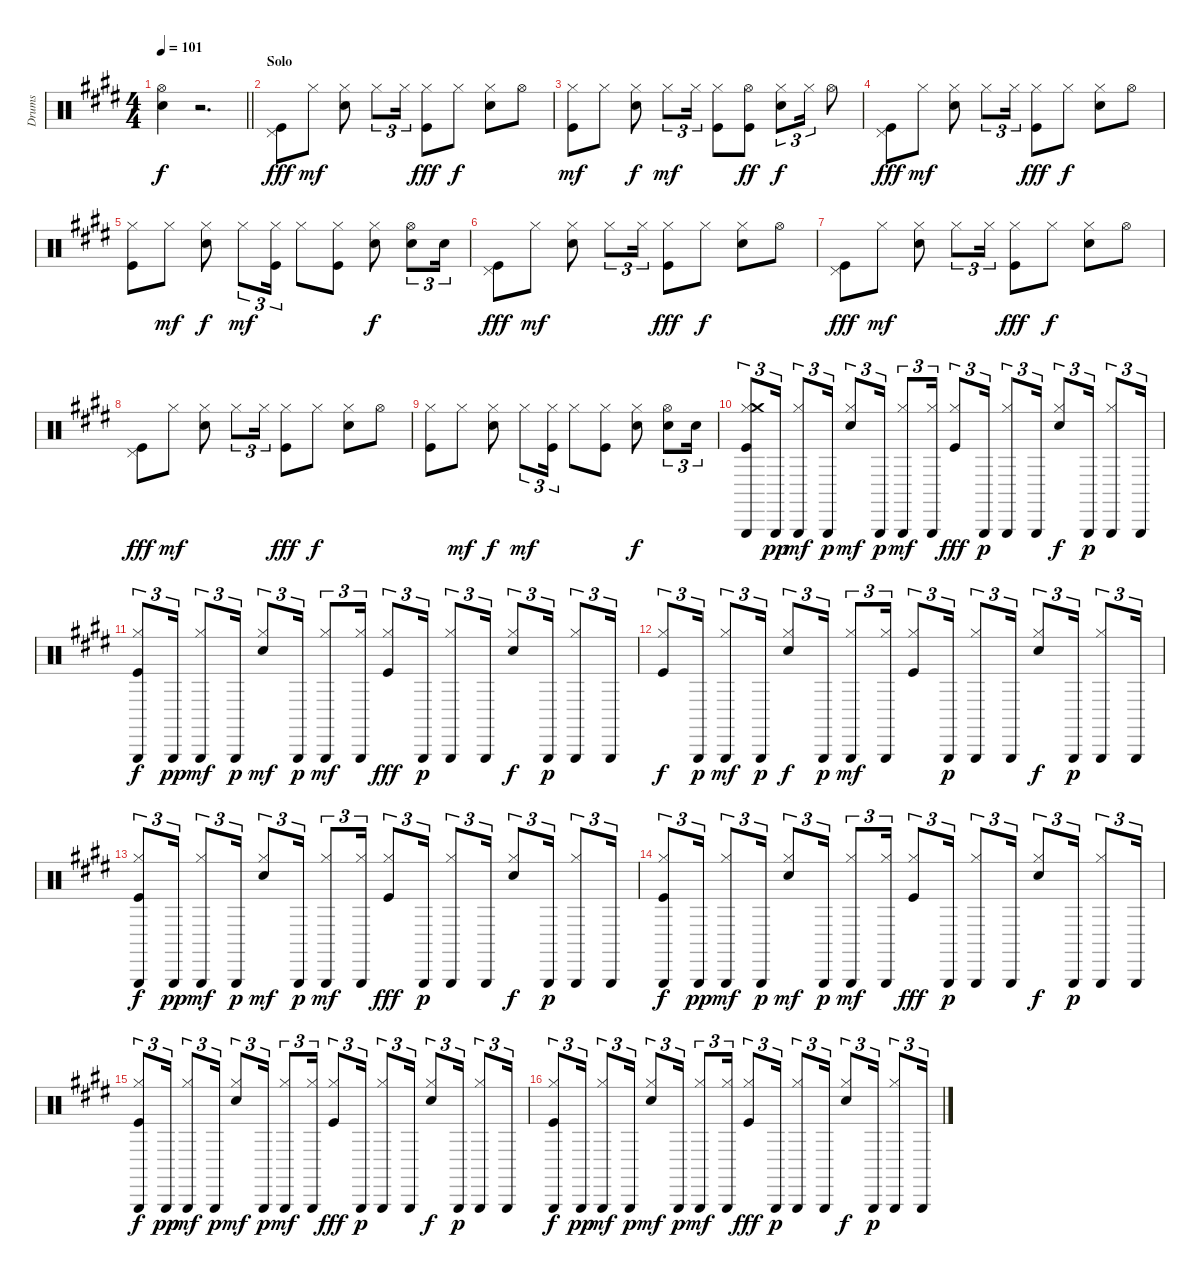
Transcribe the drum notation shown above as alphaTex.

\track ("Drums" "Drums") {instrument percussion}
\staff {score}
\articulation defaults
\ts (4 4)
\tempo 101
\clef neutral
\barLineRight lightlight
\ks e
("Electric Snare (hit)" "Hi-Hat (open)").4{dy f} r.2{d} |
\section ("" "Solo")
("Kick (hit)" "Pedal Hi-Hat (hit)").8{dy fff} "Hi-Hat (closed)".8{dy mf} ("Electric Snare (hit)" "Hi-Hat (closed)").8 "Hi-Hat (closed)".8{tu (3 2)} "Hi-Hat (closed)".16{tu (3 2)} ("Kick (hit)" "Hi-Hat (closed)").8{dy fff} "Hi-Hat (closed)".8{dy f} ("Electric Snare (hit)" "Hi-Hat (closed)").8 "Hi-Hat (open)".8 |
("Kick (hit)" "Hi-Hat (closed)").8{dy mf} "Hi-Hat (closed)".8 ("Electric Snare (hit)" "Hi-Hat (closed)").8{dy f} "Hi-Hat (closed)".8{tu (3 2) dy mf} "Hi-Hat (closed)".16{tu (3 2)} ("Kick (hit)" "Hi-Hat (closed)").8 ("Hi-Hat (open)" "Kick (hit)").8{dy ff} ("Electric Snare (hit)" "Hi-Hat (closed)").8{tu (3 2) dy f} "Hi-Hat (closed)".16{tu (3 2)} "Hi-Hat (open)".8 |
("Kick (hit)" "Pedal Hi-Hat (hit)").8{dy fff} "Hi-Hat (closed)".8{dy mf} ("Electric Snare (hit)" "Hi-Hat (closed)").8 "Hi-Hat (closed)".8{tu (3 2)} "Hi-Hat (closed)".16{tu (3 2)} ("Kick (hit)" "Hi-Hat (closed)").8{dy fff} "Hi-Hat (closed)".8{dy f} ("Electric Snare (hit)" "Hi-Hat (closed)").8 "Hi-Hat (open)".8 |
("Hi-Hat (closed)" "Kick (hit)").8 "Hi-Hat (closed)".8{dy mf} ("Electric Snare (hit)" "Hi-Hat (closed)").8{dy f} "Hi-Hat (closed)".8{tu (3 2) dy mf} ("Kick (hit)" "Hi-Hat (closed)").16{tu (3 2)} "Hi-Hat (closed)".8 ("Kick (hit)" "Hi-Hat (closed)").8 ("Electric Snare (hit)" "Hi-Hat (closed)").8{dy f} ("Electric Snare (hit)" "Hi-Hat (open)").8{tu (3 2)} "Electric Snare (hit)".16{tu (3 2)} |
("Kick (hit)" "Pedal Hi-Hat (hit)").8{dy fff} "Hi-Hat (closed)".8{dy mf} ("Electric Snare (hit)" "Hi-Hat (closed)").8 "Hi-Hat (closed)".8{tu (3 2)} "Hi-Hat (closed)".16{tu (3 2)} ("Kick (hit)" "Hi-Hat (closed)").8{dy fff} "Hi-Hat (closed)".8{dy f} ("Electric Snare (hit)" "Hi-Hat (closed)").8 "Hi-Hat (open)".8 |
("Kick (hit)" "Pedal Hi-Hat (hit)").8{dy fff} "Hi-Hat (closed)".8{dy mf} ("Electric Snare (hit)" "Hi-Hat (closed)").8 "Hi-Hat (closed)".8{tu (3 2)} "Hi-Hat (closed)".16{tu (3 2)} ("Kick (hit)" "Hi-Hat (closed)").8{dy fff} "Hi-Hat (closed)".8{dy f} ("Electric Snare (hit)" "Hi-Hat (closed)").8 "Hi-Hat (open)".8 |
("Kick (hit)" "Pedal Hi-Hat (hit)").8{dy fff} "Hi-Hat (closed)".8{dy mf} ("Electric Snare (hit)" "Hi-Hat (closed)").8 "Hi-Hat (closed)".8{tu (3 2)} "Hi-Hat (closed)".16{tu (3 2)} ("Kick (hit)" "Hi-Hat (closed)").8{dy fff} "Hi-Hat (closed)".8{dy f} ("Electric Snare (hit)" "Hi-Hat (closed)").8 "Hi-Hat (open)".8 |
("Hi-Hat (closed)" "Kick (hit)").8 "Hi-Hat (closed)".8{dy mf} ("Electric Snare (hit)" "Hi-Hat (closed)").8{dy f} "Hi-Hat (closed)".8{tu (3 2) dy mf} ("Kick (hit)" "Hi-Hat (closed)").16{tu (3 2)} "Hi-Hat (closed)".8 ("Kick (hit)" "Hi-Hat (closed)").8 ("Electric Snare (hit)" "Hi-Hat (closed)").8{dy f} ("Electric Snare (hit)" "Hi-Hat (open)").8{tu (3 2)} "Electric Snare (hit)".16{tu (3 2)} |
("Triangle (hit)" "Kick (hit)" "Hi-Hat (closed)" "Crash medium (hit)").8{tu (3 2)} "Triangle (hit)".16{tu (3 2) dy pp} ("Triangle (hit)" "Hi-Hat (closed)").8{tu (3 2) dy mf} "Triangle (hit)".16{tu (3 2) dy p} ("Electric Snare (hit)" "Hi-Hat (closed)").8{tu (3 2) dy mf} "Triangle (hit)".16{tu (3 2) dy p} ("Triangle (hit)" "Hi-Hat (closed)").8{tu (3 2) dy mf} ("Triangle (hit)" "Hi-Hat (closed)").16{tu (3 2)} ("Kick (hit)" "Hi-Hat (closed)").8{tu (3 2) dy fff} "Triangle (hit)".16{tu (3 2) dy p} ("Triangle (hit)" "Hi-Hat (closed)").8{tu (3 2)} "Triangle (hit)".16{tu (3 2)} ("Electric Snare (hit)" "Hi-Hat (closed)").8{tu (3 2) dy f} "Triangle (hit)".16{tu (3 2) dy p} ("Triangle (hit)" "Hi-Hat (closed)").8{tu (3 2)} "Triangle (hit)".16{tu (3 2)} |
("Triangle (hit)" "Kick (hit)" "Hi-Hat (closed)").8{tu (3 2) dy f} "Triangle (hit)".16{tu (3 2) dy pp} ("Triangle (hit)" "Hi-Hat (closed)").8{tu (3 2) dy mf} "Triangle (hit)".16{tu (3 2) dy p} ("Electric Snare (hit)" "Hi-Hat (closed)").8{tu (3 2) dy mf} "Triangle (hit)".16{tu (3 2) dy p} ("Triangle (hit)" "Hi-Hat (closed)").8{tu (3 2) dy mf} ("Triangle (hit)" "Hi-Hat (closed)").16{tu (3 2)} ("Kick (hit)" "Hi-Hat (closed)").8{tu (3 2) dy fff} "Triangle (hit)".16{tu (3 2) dy p} ("Triangle (hit)" "Hi-Hat (closed)").8{tu (3 2)} "Triangle (hit)".16{tu (3 2)} ("Electric Snare (hit)" "Hi-Hat (closed)").8{tu (3 2) dy f} "Triangle (hit)".16{tu (3 2) dy p} ("Triangle (hit)" "Hi-Hat (closed)").8{tu (3 2)} "Triangle (hit)".16{tu (3 2)} |
("Kick (hit)" "Hi-Hat (closed)").8{tu (3 2) dy f} "Triangle (hit)".16{tu (3 2) dy p} ("Triangle (hit)" "Hi-Hat (closed)").8{tu (3 2) dy mf} "Triangle (hit)".16{tu (3 2) dy p} ("Electric Snare (hit)" "Hi-Hat (closed)").8{tu (3 2) dy f} "Triangle (hit)".16{tu (3 2) dy p} ("Triangle (hit)" "Hi-Hat (closed)").8{tu (3 2) dy mf} ("Triangle (hit)" "Hi-Hat (closed)").16{tu (3 2)} ("Kick (hit)" "Hi-Hat (closed)").8{tu (3 2)} "Triangle (hit)".16{tu (3 2) dy p} ("Triangle (hit)" "Hi-Hat (closed)").8{tu (3 2)} "Triangle (hit)".16{tu (3 2)} ("Electric Snare (hit)" "Hi-Hat (closed)").8{tu (3 2) dy f} "Triangle (hit)".16{tu (3 2) dy p} ("Triangle (hit)" "Hi-Hat (closed)").8{tu (3 2)} "Triangle (hit)".16{tu (3 2)} |
("Triangle (hit)" "Kick (hit)" "Hi-Hat (closed)").8{tu (3 2) dy f} "Triangle (hit)".16{tu (3 2) dy pp} ("Triangle (hit)" "Hi-Hat (closed)").8{tu (3 2) dy mf} "Triangle (hit)".16{tu (3 2) dy p} ("Electric Snare (hit)" "Hi-Hat (closed)").8{tu (3 2) dy mf} "Triangle (hit)".16{tu (3 2) dy p} ("Triangle (hit)" "Hi-Hat (closed)").8{tu (3 2) dy mf} ("Triangle (hit)" "Hi-Hat (closed)").16{tu (3 2)} ("Kick (hit)" "Hi-Hat (closed)").8{tu (3 2) dy fff} "Triangle (hit)".16{tu (3 2) dy p} ("Triangle (hit)" "Hi-Hat (closed)").8{tu (3 2)} "Triangle (hit)".16{tu (3 2)} ("Electric Snare (hit)" "Hi-Hat (closed)").8{tu (3 2) dy f} "Triangle (hit)".16{tu (3 2) dy p} ("Triangle (hit)" "Hi-Hat (closed)").8{tu (3 2)} "Triangle (hit)".16{tu (3 2)} |
("Triangle (hit)" "Kick (hit)" "Hi-Hat (closed)").8{tu (3 2) dy f} "Triangle (hit)".16{tu (3 2) dy pp} ("Triangle (hit)" "Hi-Hat (closed)").8{tu (3 2) dy mf} "Triangle (hit)".16{tu (3 2) dy p} ("Electric Snare (hit)" "Hi-Hat (closed)").8{tu (3 2) dy mf} "Triangle (hit)".16{tu (3 2) dy p} ("Triangle (hit)" "Hi-Hat (closed)").8{tu (3 2) dy mf} ("Triangle (hit)" "Hi-Hat (closed)").16{tu (3 2)} ("Kick (hit)" "Hi-Hat (closed)").8{tu (3 2) dy fff} "Triangle (hit)".16{tu (3 2) dy p} ("Triangle (hit)" "Hi-Hat (closed)").8{tu (3 2)} "Triangle (hit)".16{tu (3 2)} ("Electric Snare (hit)" "Hi-Hat (closed)").8{tu (3 2) dy f} "Triangle (hit)".16{tu (3 2) dy p} ("Triangle (hit)" "Hi-Hat (closed)").8{tu (3 2)} "Triangle (hit)".16{tu (3 2)} |
("Triangle (hit)" "Kick (hit)" "Hi-Hat (closed)").8{tu (3 2) dy f} "Triangle (hit)".16{tu (3 2) dy pp} ("Triangle (hit)" "Hi-Hat (closed)").8{tu (3 2) dy mf} "Triangle (hit)".16{tu (3 2) dy p} ("Electric Snare (hit)" "Hi-Hat (closed)").8{tu (3 2) dy mf} "Triangle (hit)".16{tu (3 2) dy p} ("Triangle (hit)" "Hi-Hat (closed)").8{tu (3 2) dy mf} ("Triangle (hit)" "Hi-Hat (closed)").16{tu (3 2)} ("Kick (hit)" "Hi-Hat (closed)").8{tu (3 2) dy fff} "Triangle (hit)".16{tu (3 2) dy p} ("Triangle (hit)" "Hi-Hat (closed)").8{tu (3 2)} "Triangle (hit)".16{tu (3 2)} ("Electric Snare (hit)" "Hi-Hat (closed)").8{tu (3 2) dy f} "Triangle (hit)".16{tu (3 2) dy p} ("Triangle (hit)" "Hi-Hat (closed)").8{tu (3 2)} "Triangle (hit)".16{tu (3 2)} |
("Triangle (hit)" "Kick (hit)" "Hi-Hat (closed)").8{tu (3 2) dy f} "Triangle (hit)".16{tu (3 2) dy pp} ("Triangle (hit)" "Hi-Hat (closed)").8{tu (3 2) dy mf} "Triangle (hit)".16{tu (3 2) dy p} ("Electric Snare (hit)" "Hi-Hat (closed)").8{tu (3 2) dy mf} "Triangle (hit)".16{tu (3 2) dy p} ("Triangle (hit)" "Hi-Hat (closed)").8{tu (3 2) dy mf} ("Triangle (hit)" "Hi-Hat (closed)").16{tu (3 2)} ("Kick (hit)" "Hi-Hat (closed)").8{tu (3 2) dy fff} "Triangle (hit)".16{tu (3 2) dy p} ("Triangle (hit)" "Hi-Hat (closed)").8{tu (3 2)} "Triangle (hit)".16{tu (3 2)} ("Electric Snare (hit)" "Hi-Hat (closed)").8{tu (3 2) dy f} "Triangle (hit)".16{tu (3 2) dy p} ("Triangle (hit)" "Hi-Hat (closed)").8{tu (3 2)} "Triangle (hit)".16{tu (3 2)}
